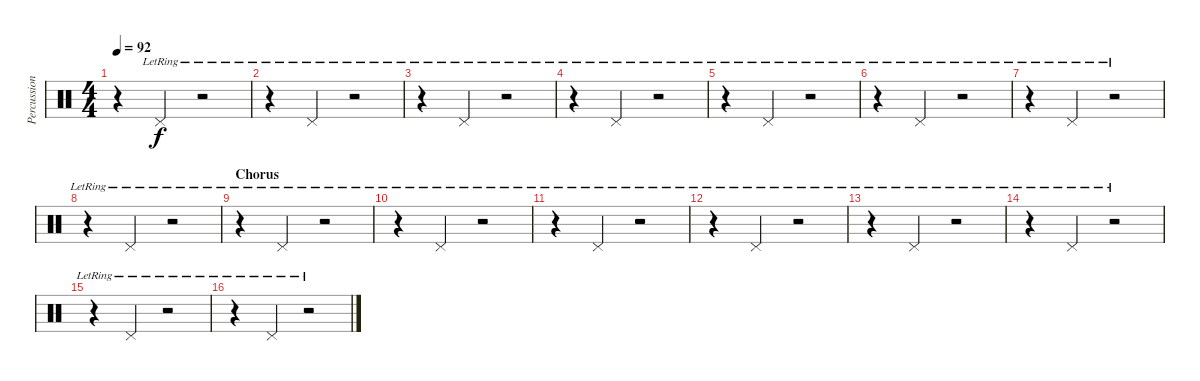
\track ("Percussion" "Percussion") {instrument percussion}
\staff {score}
\articulation defaults
\ts (4 4)
\tempo 92
\clef neutral
\ks c
r.4{dy f} "Pedal Hi-Hat (hit)"{lr}.4 r.2 |
r.4 "Pedal Hi-Hat (hit)"{lr}.4 r.2 |
r.4 "Pedal Hi-Hat (hit)"{lr}.4 r.2 |
r.4 "Pedal Hi-Hat (hit)"{lr}.4 r.2 |
r.4 "Pedal Hi-Hat (hit)"{lr}.4 r.2 |
r.4 "Pedal Hi-Hat (hit)"{lr}.4 r.2 |
r.4 "Pedal Hi-Hat (hit)"{lr}.4 r.2 |
r.4 "Pedal Hi-Hat (hit)"{lr}.4 r.2 |
\section ("" "Chorus")
r.4 "Pedal Hi-Hat (hit)"{lr}.4 r.2 |
r.4 "Pedal Hi-Hat (hit)"{lr}.4 r.2 |
r.4 "Pedal Hi-Hat (hit)"{lr}.4 r.2 |
r.4 "Pedal Hi-Hat (hit)"{lr}.4 r.2 |
r.4 "Pedal Hi-Hat (hit)"{lr}.4 r.2 |
r.4 "Pedal Hi-Hat (hit)"{lr}.4 r.2 |
r.4 "Pedal Hi-Hat (hit)"{lr}.4 r.2 |
r.4 "Pedal Hi-Hat (hit)"{lr}.4 r.2
